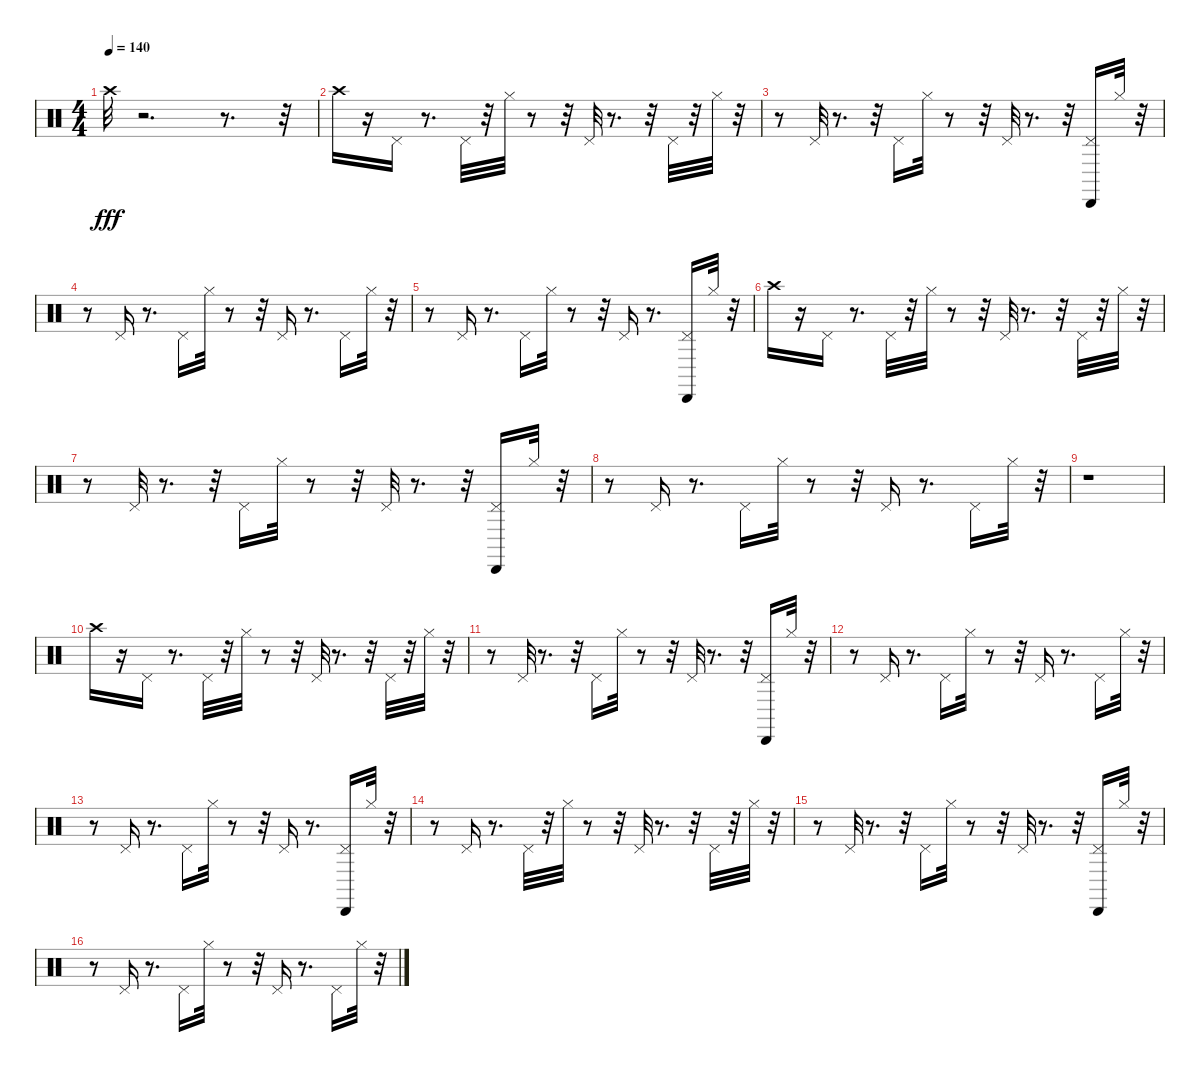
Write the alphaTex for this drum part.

\track "" {instrument percussion}
\staff {score}
\articulation defaults
\ts (4 4)
\tempo 140
\clef neutral
\ks c "Crash high (hit)".32{dy fff}
r.2{d} r.8{d} r.32 |
"Crash high (hit)".16 r.16 "Pedal Hi-Hat (hit)".16 r.8{d} "Pedal Hi-Hat (hit)".32 r.32 "Hi-Hat (closed)".32 r.8 r.32 "Pedal Hi-Hat (hit)".32 r.8{d} r.32 "Pedal Hi-Hat (hit)".32 r.32 "Hi-Hat (closed)".32 r.32 |
r.8 "Pedal Hi-Hat (hit)".32 r.8{d} r.32 "Pedal Hi-Hat (hit)".16 "Hi-Hat (closed)".32 r.8 r.32 "Pedal Hi-Hat (hit)".32 r.8{d} r.32 ("Cabasa (hit)" "Pedal Hi-Hat (hit)").16 "Hi-Hat (closed)".32 r.32 |
r.8 "Pedal Hi-Hat (hit)".16 r.8{d} "Pedal Hi-Hat (hit)".16 "Hi-Hat (closed)".32 r.8 r.32 "Pedal Hi-Hat (hit)".16 r.8{d} "Pedal Hi-Hat (hit)".16 "Hi-Hat (closed)".32 r.32 |
r.8 "Pedal Hi-Hat (hit)".16 r.8{d} "Pedal Hi-Hat (hit)".16 "Hi-Hat (closed)".32 r.8 r.32 "Pedal Hi-Hat (hit)".16 r.8{d} ("Cabasa (hit)" "Pedal Hi-Hat (hit)").16 "Hi-Hat (closed)".32 r.32 |
"Crash high (hit)".16 r.16 "Pedal Hi-Hat (hit)".16 r.8{d} "Pedal Hi-Hat (hit)".32 r.32 "Hi-Hat (closed)".32 r.8 r.32 "Pedal Hi-Hat (hit)".32 r.8{d} r.32 "Pedal Hi-Hat (hit)".32 r.32 "Hi-Hat (closed)".32 r.32 |
r.8 "Pedal Hi-Hat (hit)".32 r.8{d} r.32 "Pedal Hi-Hat (hit)".16 "Hi-Hat (closed)".32 r.8 r.32 "Pedal Hi-Hat (hit)".32 r.8{d} r.32 ("Cabasa (hit)" "Pedal Hi-Hat (hit)").16 "Hi-Hat (closed)".32 r.32 |
r.8 "Pedal Hi-Hat (hit)".16 r.8{d} "Pedal Hi-Hat (hit)".16 "Hi-Hat (closed)".32 r.8 r.32 "Pedal Hi-Hat (hit)".16 r.8{d} "Pedal Hi-Hat (hit)".16 "Hi-Hat (closed)".32 r.32 |
r.1 |
"Crash high (hit)".16 r.16 "Pedal Hi-Hat (hit)".16 r.8{d} "Pedal Hi-Hat (hit)".32 r.32 "Hi-Hat (closed)".32 r.8 r.32 "Pedal Hi-Hat (hit)".32 r.8{d} r.32 "Pedal Hi-Hat (hit)".32 r.32 "Hi-Hat (closed)".32 r.32 |
r.8 "Pedal Hi-Hat (hit)".32 r.8{d} r.32 "Pedal Hi-Hat (hit)".16 "Hi-Hat (closed)".32 r.8 r.32 "Pedal Hi-Hat (hit)".32 r.8{d} r.32 ("Cabasa (hit)" "Pedal Hi-Hat (hit)").16 "Hi-Hat (closed)".32 r.32 |
r.8 "Pedal Hi-Hat (hit)".16 r.8{d} "Pedal Hi-Hat (hit)".16 "Hi-Hat (closed)".32 r.8 r.32 "Pedal Hi-Hat (hit)".16 r.8{d} "Pedal Hi-Hat (hit)".16 "Hi-Hat (closed)".32 r.32 |
r.8 "Pedal Hi-Hat (hit)".16 r.8{d} "Pedal Hi-Hat (hit)".16 "Hi-Hat (closed)".32 r.8 r.32 "Pedal Hi-Hat (hit)".16 r.8{d} ("Cabasa (hit)" "Pedal Hi-Hat (hit)").16 "Hi-Hat (closed)".32 r.32 |
r.8 "Pedal Hi-Hat (hit)".16 r.8{d} "Pedal Hi-Hat (hit)".32 r.32 "Hi-Hat (closed)".32 r.8 r.32 "Pedal Hi-Hat (hit)".32 r.8{d} r.32 "Pedal Hi-Hat (hit)".32 r.32 "Hi-Hat (closed)".32 r.32 |
r.8 "Pedal Hi-Hat (hit)".32 r.8{d} r.32 "Pedal Hi-Hat (hit)".16 "Hi-Hat (closed)".32 r.8 r.32 "Pedal Hi-Hat (hit)".32 r.8{d} r.32 ("Cabasa (hit)" "Pedal Hi-Hat (hit)").16 "Hi-Hat (closed)".32 r.32 |
r.8 "Pedal Hi-Hat (hit)".16 r.8{d} "Pedal Hi-Hat (hit)".16 "Hi-Hat (closed)".32 r.8 r.32 "Pedal Hi-Hat (hit)".16 r.8{d} "Pedal Hi-Hat (hit)".16 "Hi-Hat (closed)".32 r.32
